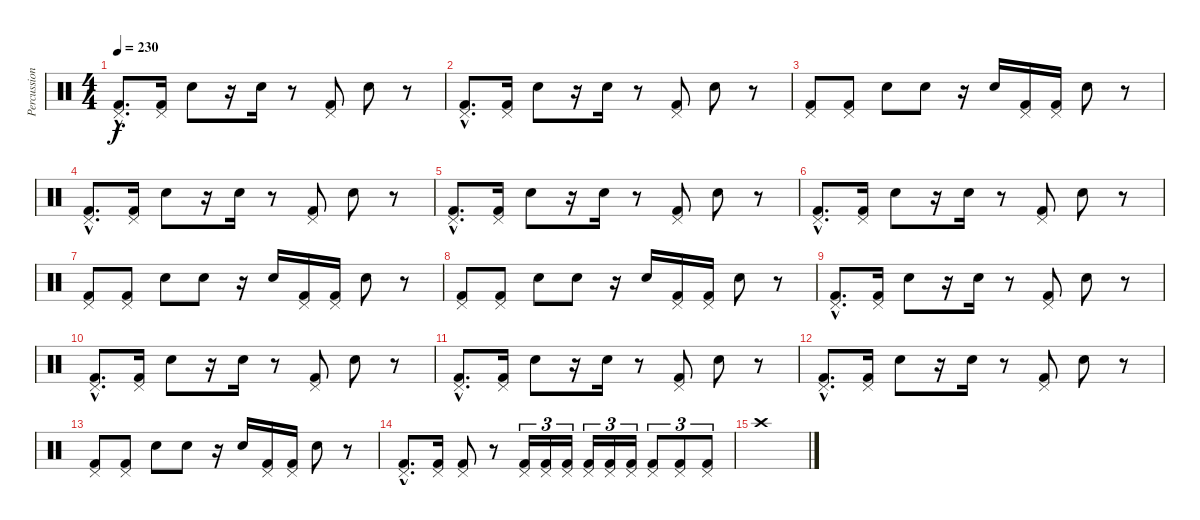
\track ("Percussion" "Percussion") {instrument percussion}
\staff {score}
\articulation defaults
\ts (4 4)
\tempo 230
\clef neutral
\ks c
("Pedal Hi-Hat (hit)"{hac} "Kick (hit) 2"{hac}).8{d dy f} ("Pedal Hi-Hat (hit)" "Kick (hit) 2").16 "Snare (hit) 2".8 r.16 "Snare (hit) 2".16 r.8 ("Pedal Hi-Hat (hit)" "Kick (hit) 2").8 "Snare (hit) 2".8 r.8 |
("Pedal Hi-Hat (hit)"{hac} "Kick (hit) 2"{hac}).8{d} ("Pedal Hi-Hat (hit)" "Kick (hit) 2").16 "Snare (hit) 2".8 r.16 "Snare (hit) 2".16 r.8 ("Pedal Hi-Hat (hit)" "Kick (hit) 2").8 "Snare (hit) 2".8 r.8 |
("Pedal Hi-Hat (hit)" "Kick (hit) 2").8 ("Pedal Hi-Hat (hit)" "Kick (hit) 2").8 "Snare (hit) 2".8 "Snare (hit) 2".8 r.16 "Snare (hit) 2".16 ("Pedal Hi-Hat (hit)" "Kick (hit) 2").16 ("Pedal Hi-Hat (hit)" "Kick (hit) 2").16 "Snare (hit) 2".8 r.8 |
("Pedal Hi-Hat (hit)"{hac} "Kick (hit) 2"{hac}).8{d} ("Pedal Hi-Hat (hit)" "Kick (hit) 2").16 "Snare (hit) 2".8 r.16 "Snare (hit) 2".16 r.8 ("Pedal Hi-Hat (hit)" "Kick (hit) 2").8 "Snare (hit) 2".8 r.8 |
("Pedal Hi-Hat (hit)"{hac} "Kick (hit) 2"{hac}).8{d} ("Pedal Hi-Hat (hit)" "Kick (hit) 2").16 "Snare (hit) 2".8 r.16 "Snare (hit) 2".16 r.8 ("Pedal Hi-Hat (hit)" "Kick (hit) 2").8 "Snare (hit) 2".8 r.8 |
("Pedal Hi-Hat (hit)"{hac} "Kick (hit) 2"{hac}).8{d} ("Pedal Hi-Hat (hit)" "Kick (hit) 2").16 "Snare (hit) 2".8 r.16 "Snare (hit) 2".16 r.8 ("Pedal Hi-Hat (hit)" "Kick (hit) 2").8 "Snare (hit) 2".8 r.8 |
("Pedal Hi-Hat (hit)" "Kick (hit) 2").8 ("Pedal Hi-Hat (hit)" "Kick (hit) 2").8 "Snare (hit) 2".8 "Snare (hit) 2".8 r.16 "Snare (hit) 2".16 ("Pedal Hi-Hat (hit)" "Kick (hit) 2").16 ("Pedal Hi-Hat (hit)" "Kick (hit) 2").16 "Snare (hit) 2".8 r.8 |
("Pedal Hi-Hat (hit)" "Kick (hit) 2").8 ("Pedal Hi-Hat (hit)" "Kick (hit) 2").8 "Snare (hit) 2".8 "Snare (hit) 2".8 r.16 "Snare (hit) 2".16 ("Pedal Hi-Hat (hit)" "Kick (hit) 2").16 ("Pedal Hi-Hat (hit)" "Kick (hit) 2").16 "Snare (hit) 2".8 r.8 |
("Pedal Hi-Hat (hit)"{hac} "Kick (hit) 2"{hac}).8{d} ("Pedal Hi-Hat (hit)" "Kick (hit) 2").16 "Snare (hit) 2".8 r.16 "Snare (hit) 2".16 r.8 ("Pedal Hi-Hat (hit)" "Kick (hit) 2").8 "Snare (hit) 2".8 r.8 |
("Pedal Hi-Hat (hit)"{hac} "Kick (hit) 2"{hac}).8{d} ("Pedal Hi-Hat (hit)" "Kick (hit) 2").16 "Snare (hit) 2".8 r.16 "Snare (hit) 2".16 r.8 ("Pedal Hi-Hat (hit)" "Kick (hit) 2").8 "Snare (hit) 2".8 r.8 |
("Pedal Hi-Hat (hit)"{hac} "Kick (hit) 2"{hac}).8{d} ("Pedal Hi-Hat (hit)" "Kick (hit) 2").16 "Snare (hit) 2".8 r.16 "Snare (hit) 2".16 r.8 ("Pedal Hi-Hat (hit)" "Kick (hit) 2").8 "Snare (hit) 2".8 r.8 |
("Pedal Hi-Hat (hit)"{hac} "Kick (hit) 2"{hac}).8{d} ("Pedal Hi-Hat (hit)" "Kick (hit) 2").16 "Snare (hit) 2".8 r.16 "Snare (hit) 2".16 r.8 ("Pedal Hi-Hat (hit)" "Kick (hit) 2").8 "Snare (hit) 2".8 r.8 |
("Pedal Hi-Hat (hit)" "Kick (hit) 2").8 ("Pedal Hi-Hat (hit)" "Kick (hit) 2").8 "Snare (hit) 2".8 "Snare (hit) 2".8 r.16 "Snare (hit) 2".16 ("Pedal Hi-Hat (hit)" "Kick (hit) 2").16 ("Pedal Hi-Hat (hit)" "Kick (hit) 2").16 "Snare (hit) 2".8 r.8 |
("Pedal Hi-Hat (hit)"{hac} "Kick (hit) 2"{hac}).8{d} ("Pedal Hi-Hat (hit)" "Kick (hit) 2").16 ("Pedal Hi-Hat (hit)" "Kick (hit) 2").8 r.8 ("Pedal Hi-Hat (hit)" "Kick (hit) 2").16{tu (3 2)} ("Pedal Hi-Hat (hit)" "Kick (hit) 2").16{tu (3 2)} ("Pedal Hi-Hat (hit)" "Kick (hit) 2").16{tu (3 2)} ("Pedal Hi-Hat (hit)" "Kick (hit) 2").16{tu (3 2)} ("Pedal Hi-Hat (hit)" "Kick (hit) 2").16{tu (3 2)} ("Pedal Hi-Hat (hit)" "Kick (hit) 2").16{tu (3 2)} ("Pedal Hi-Hat (hit)" "Kick (hit) 2").8{tu (3 2)} ("Pedal Hi-Hat (hit)" "Kick (hit) 2").8{tu (3 2)} ("Pedal Hi-Hat (hit)" "Kick (hit) 2").8{tu (3 2)} |
"Crash high (hit)".1
